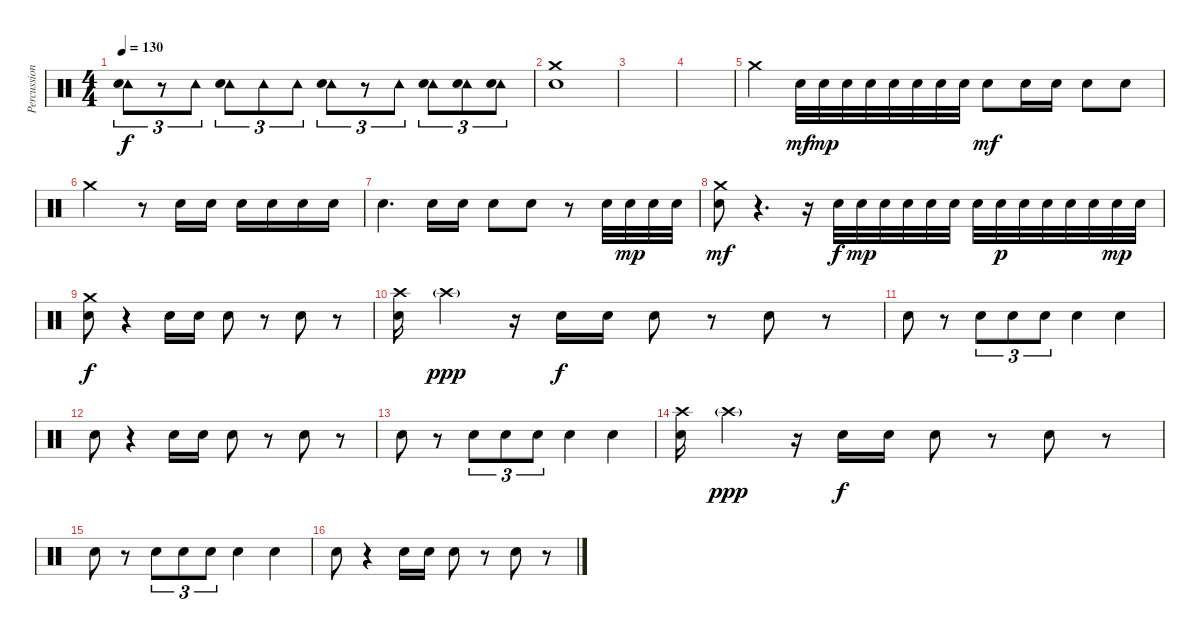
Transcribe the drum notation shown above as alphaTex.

\track ("Percussion" "Percussion") {instrument percussion}
\staff {score}
\articulation defaults
\ts (4 4)
\tempo 130
\clef neutral
\ks c
("Tambourine (hit)" "Snare (hit) 2").8{tu (3 2) dy f} r.8{tu (3 2)} "Tambourine (hit)".8{tu (3 2)} ("Tambourine (hit)" "Snare (hit) 2").8{tu (3 2)} "Tambourine (hit)".8{tu (3 2)} "Tambourine (hit)".8{tu (3 2)} ("Tambourine (hit)" "Snare (hit) 2").8{tu (3 2)} r.8{tu (3 2)} "Tambourine (hit)".8{tu (3 2)} ("Tambourine (hit)" "Snare (hit) 2").8{tu (3 2)} ("Tambourine (hit)" "Snare (hit) 2").8{tu (3 2)} ("Tambourine (hit)" "Snare (hit) 2").8{tu (3 2)} |
("Crash medium (hit)" "Snare (hit) 2").1{volume 11 balance 8} |
|
|
"Crash medium (hit)".4 "Snare (hit) 2".32{dy mf} "Snare (hit) 2".32{dy mp} "Snare (hit) 2".32 "Snare (hit) 2".32 "Snare (hit) 2".32 "Snare (hit) 2".32 "Snare (hit) 2".32 "Snare (hit) 2".32 "Snare (hit) 2".8{dy mf} "Snare (hit) 2".16 "Snare (hit) 2".16 "Snare (hit) 2".8 "Snare (hit) 2".8 |
"Crash medium (hit)".2 r.8 "Snare (hit) 2".16 "Snare (hit) 2".16 "Snare (hit) 2".16 "Snare (hit) 2".16 "Snare (hit) 2".16 "Snare (hit) 2".16 |
"Snare (hit) 2".4{d} "Snare (hit) 2".16 "Snare (hit) 2".16 "Snare (hit) 2".8 "Snare (hit) 2".8 r.8 "Snare (hit) 2".32 "Snare (hit) 2".32{dy mp} "Snare (hit) 2".32 "Snare (hit) 2".32 |
("Crash medium (hit)" "Snare (hit) 2").8{dy mf} r.4{d} r.16 "Snare (hit) 2".32{dy f} "Snare (hit) 2".32{dy mp} "Snare (hit) 2".32 "Snare (hit) 2".32 "Snare (hit) 2".32 "Snare (hit) 2".32 "Snare (hit) 2".32 "Snare (hit) 2".32{dy p} "Snare (hit) 2".32 "Snare (hit) 2".32 "Snare (hit) 2".32 "Snare (hit) 2".32 "Snare (hit) 2".32{dy mp} "Snare (hit) 2".32 |
("Crash medium (hit)" "Snare (hit) 2").8{dy f} r.4 "Snare (hit) 2".16 "Snare (hit) 2".16 "Snare (hit) 2".8 r.8 "Snare (hit) 2".8 r.8 |
("Crash high (hit)" "Snare (hit) 2").16{volume 5} "Crash high (hit)"{g}.4{dy ppp} r.16 "Snare (hit) 2".16{dy f} "Snare (hit) 2".16 "Snare (hit) 2".8 r.8 "Snare (hit) 2".8 r.8 |
"Snare (hit) 2".8 r.8 "Snare (hit) 2".8{tu (3 2)} "Snare (hit) 2".8{tu (3 2)} "Snare (hit) 2".8{tu (3 2)} "Snare (hit) 2".4 "Snare (hit) 2".4 |
"Snare (hit) 2".8 r.4 "Snare (hit) 2".16 "Snare (hit) 2".16 "Snare (hit) 2".8 r.8 "Snare (hit) 2".8 r.8 |
"Snare (hit) 2".8 r.8 "Snare (hit) 2".8{tu (3 2)} "Snare (hit) 2".8{tu (3 2)} "Snare (hit) 2".8{tu (3 2)} "Snare (hit) 2".4 "Snare (hit) 2".4 |
("Crash high (hit)" "Snare (hit) 2").16{volume 0} "Crash high (hit)"{g}.4{dy ppp} r.16 "Snare (hit) 2".16{dy f} "Snare (hit) 2".16 "Snare (hit) 2".8 r.8 "Snare (hit) 2".8 r.8 |
"Snare (hit) 2".8 r.8 "Snare (hit) 2".8{tu (3 2)} "Snare (hit) 2".8{tu (3 2)} "Snare (hit) 2".8{tu (3 2)} "Snare (hit) 2".4 "Snare (hit) 2".4 |
"Snare (hit) 2".8 r.4 "Snare (hit) 2".16 "Snare (hit) 2".16 "Snare (hit) 2".8 r.8 "Snare (hit) 2".8 r.8
